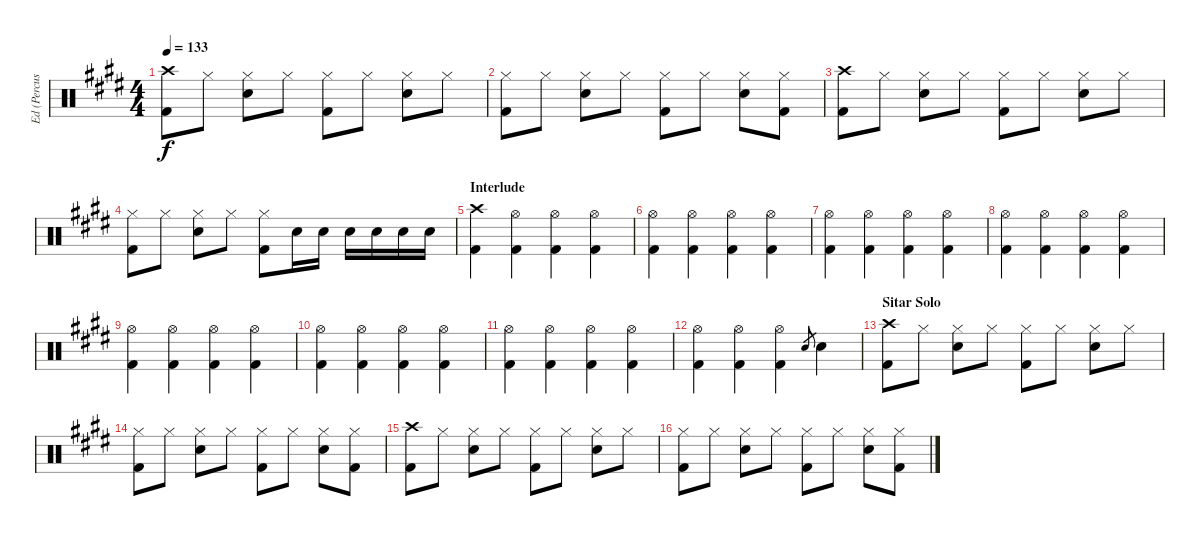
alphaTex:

\track ("Ed (Percussion/Drums)" "Ed (Percus") {instrument percussion}
\staff {score}
\articulation defaults
\ts (4 4)
\tempo 133
\clef neutral
\ks e
("Crash high (hit)" "Kick (hit) 2").8{dy f} "Hi-Hat (closed)".8 ("Hi-Hat (closed)" "Snare (hit) 2").8 "Hi-Hat (closed)".8 ("Hi-Hat (closed)" "Kick (hit) 2").8 "Hi-Hat (closed)".8 ("Hi-Hat (closed)" "Snare (hit) 2").8 "Hi-Hat (closed)".8 |
("Hi-Hat (closed)" "Kick (hit) 2").8 "Hi-Hat (closed)".8 ("Hi-Hat (closed)" "Snare (hit) 2").8 "Hi-Hat (closed)".8 ("Hi-Hat (closed)" "Kick (hit) 2").8 "Hi-Hat (closed)".8 ("Hi-Hat (closed)" "Snare (hit) 2").8 ("Hi-Hat (closed)" "Kick (hit) 2").8 |
("Crash high (hit)" "Kick (hit) 2").8 "Hi-Hat (closed)".8 ("Hi-Hat (closed)" "Snare (hit) 2").8 "Hi-Hat (closed)".8 ("Hi-Hat (closed)" "Kick (hit) 2").8 "Hi-Hat (closed)".8 ("Hi-Hat (closed)" "Snare (hit) 2").8 "Hi-Hat (closed)".8 |
("Hi-Hat (closed)" "Kick (hit) 2").8 "Hi-Hat (closed)".8 ("Hi-Hat (closed)" "Snare (hit) 2").8 "Hi-Hat (closed)".8 ("Hi-Hat (closed)" "Kick (hit) 2").8 "Snare (hit) 2".16 "Snare (hit) 2".16 "Snare (hit) 2".16 "Snare (hit) 2".16 "Snare (hit) 2".16 "Snare (hit) 2".16 |
\section ("" "Interlude")
("Crash high (hit)" "Kick (hit) 2").4 ("Hi-Hat (open)" "Kick (hit) 2").4 ("Hi-Hat (open)" "Kick (hit) 2").4 ("Hi-Hat (open)" "Kick (hit) 2").4 |
("Hi-Hat (open)" "Kick (hit) 2").4 ("Hi-Hat (open)" "Kick (hit) 2").4 ("Hi-Hat (open)" "Kick (hit) 2").4 ("Hi-Hat (open)" "Kick (hit) 2").4 |
("Hi-Hat (open)" "Kick (hit) 2").4 ("Hi-Hat (open)" "Kick (hit) 2").4 ("Hi-Hat (open)" "Kick (hit) 2").4 ("Hi-Hat (open)" "Kick (hit) 2").4 |
("Hi-Hat (open)" "Kick (hit) 2").4 ("Hi-Hat (open)" "Kick (hit) 2").4 ("Hi-Hat (open)" "Kick (hit) 2").4 ("Hi-Hat (open)" "Kick (hit) 2").4 |
("Hi-Hat (open)" "Kick (hit) 2").4{volume 16} ("Hi-Hat (open)" "Kick (hit) 2").4 ("Hi-Hat (open)" "Kick (hit) 2").4 ("Hi-Hat (open)" "Kick (hit) 2").4 |
("Hi-Hat (open)" "Kick (hit) 2").4 ("Hi-Hat (open)" "Kick (hit) 2").4 ("Hi-Hat (open)" "Kick (hit) 2").4 ("Hi-Hat (open)" "Kick (hit) 2").4 |
("Hi-Hat (open)" "Kick (hit) 2").4 ("Hi-Hat (open)" "Kick (hit) 2").4 ("Hi-Hat (open)" "Kick (hit) 2").4 ("Hi-Hat (open)" "Kick (hit) 2").4 |
("Hi-Hat (open)" "Kick (hit) 2").4 ("Hi-Hat (open)" "Kick (hit) 2").4 ("Hi-Hat (open)" "Kick (hit) 2").4 "Snare (hit) 2".8{gr} "Snare (hit) 2".4 |
\section ("" "Sitar Solo")
("Crash high (hit)" "Kick (hit) 2").8{volume 11} "Hi-Hat (closed)".8 ("Hi-Hat (closed)" "Snare (hit) 2").8 "Hi-Hat (closed)".8 ("Hi-Hat (closed)" "Kick (hit) 2").8 "Hi-Hat (closed)".8 ("Hi-Hat (closed)" "Snare (hit) 2").8 "Hi-Hat (closed)".8 |
("Hi-Hat (closed)" "Kick (hit) 2").8 "Hi-Hat (closed)".8 ("Hi-Hat (closed)" "Snare (hit) 2").8 "Hi-Hat (closed)".8 ("Hi-Hat (closed)" "Kick (hit) 2").8 "Hi-Hat (closed)".8 ("Hi-Hat (closed)" "Snare (hit) 2").8 ("Hi-Hat (closed)" "Kick (hit) 2").8 |
("Crash high (hit)" "Kick (hit) 2").8 "Hi-Hat (closed)".8 ("Hi-Hat (closed)" "Snare (hit) 2").8 "Hi-Hat (closed)".8 ("Hi-Hat (closed)" "Kick (hit) 2").8 "Hi-Hat (closed)".8 ("Hi-Hat (closed)" "Snare (hit) 2").8 "Hi-Hat (closed)".8 |
("Hi-Hat (closed)" "Kick (hit) 2").8 "Hi-Hat (closed)".8 ("Hi-Hat (closed)" "Snare (hit) 2").8 "Hi-Hat (closed)".8 ("Hi-Hat (closed)" "Kick (hit) 2").8 "Hi-Hat (closed)".8 ("Hi-Hat (closed)" "Snare (hit) 2").8 ("Hi-Hat (closed)" "Kick (hit) 2").8
